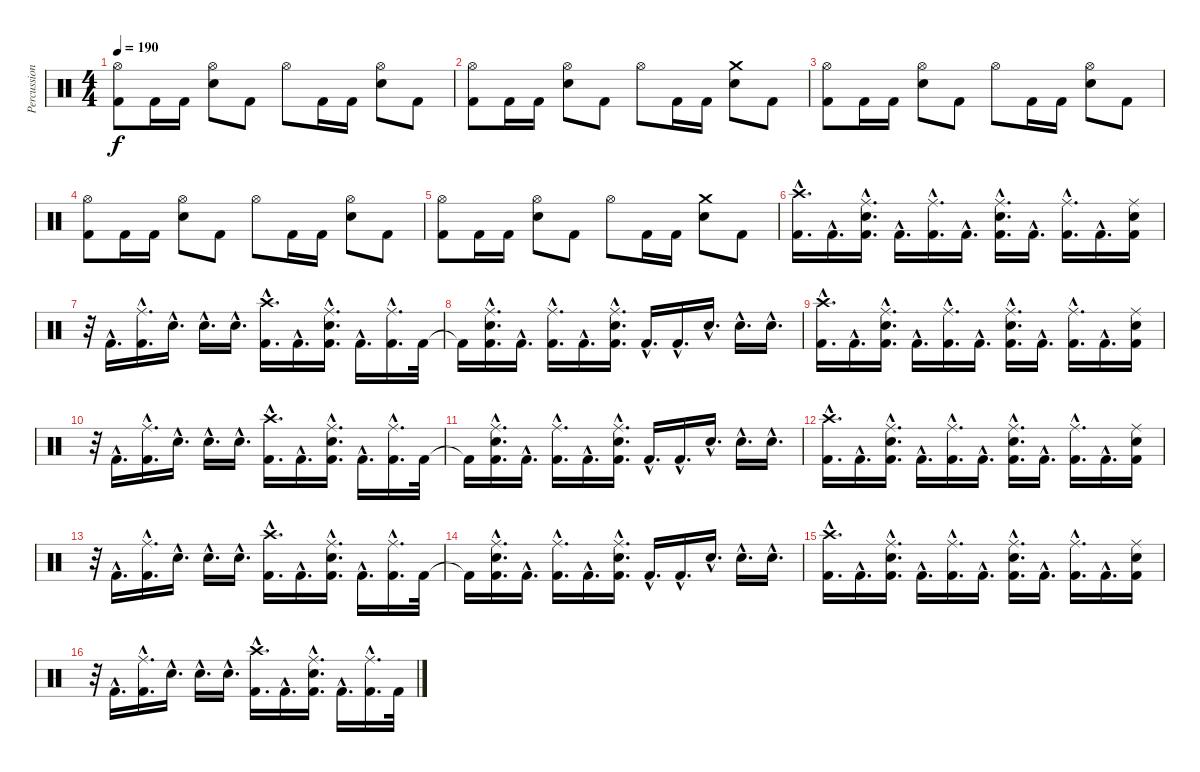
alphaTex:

\track ("Percussion" "Percussion") {instrument percussion}
\staff {score}
\articulation defaults
\ts (4 4)
\tempo 190
\clef neutral
\ks c
("Hi-Hat (open)" "Kick (hit) 2").8{dy f} "Kick (hit) 2".16 "Kick (hit) 2".16 ("Hi-Hat (open)" "Snare (hit) 2").8 "Kick (hit) 2".8 "Hi-Hat (open)".8 "Kick (hit) 2".16 "Kick (hit) 2".16 ("Hi-Hat (open)" "Snare (hit) 2").8 "Kick (hit) 2".8 |
("Hi-Hat (open)" "Kick (hit) 2").8 "Kick (hit) 2".16 "Kick (hit) 2".16 ("Hi-Hat (open)" "Snare (hit) 2").8 "Kick (hit) 2".8 "Hi-Hat (open)".8 "Kick (hit) 2".16 "Kick (hit) 2".16 ("Crash medium (hit)" "Snare (hit) 2").8 "Kick (hit) 2".8 |
("Hi-Hat (open)" "Kick (hit) 2").8 "Kick (hit) 2".16 "Kick (hit) 2".16 ("Hi-Hat (open)" "Snare (hit) 2").8 "Kick (hit) 2".8 "Hi-Hat (open)".8 "Kick (hit) 2".16 "Kick (hit) 2".16 ("Hi-Hat (open)" "Snare (hit) 2").8 "Kick (hit) 2".8 |
("Hi-Hat (open)" "Kick (hit) 2").8 "Kick (hit) 2".16 "Kick (hit) 2".16 ("Hi-Hat (open)" "Snare (hit) 2").8 "Kick (hit) 2".8 "Hi-Hat (open)".8 "Kick (hit) 2".16 "Kick (hit) 2".16 ("Hi-Hat (open)" "Snare (hit) 2").8 "Kick (hit) 2".8 |
("Hi-Hat (open)" "Kick (hit) 2").8 "Kick (hit) 2".16 "Kick (hit) 2".16 ("Hi-Hat (open)" "Snare (hit) 2").8 "Kick (hit) 2".8 "Hi-Hat (open)".8 "Kick (hit) 2".16 "Kick (hit) 2".16 ("Crash medium (hit)" "Snare (hit) 2").8 "Kick (hit) 2".8 |
("Crash high (hit)"{hac} "Kick (hit) 2"{hac}).16{d} "Kick (hit) 2"{hac}.16{d} ("Ride (middle)"{hac} "Snare (hit) 2"{hac} "Kick (hit) 2"{hac}).16{d} "Kick (hit) 2"{hac}.16{d} ("Ride (middle)"{hac} "Kick (hit) 2"{hac}).16{d} "Kick (hit) 2"{hac}.16{d} ("Ride (middle)"{hac} "Snare (hit) 2"{hac} "Kick (hit) 2"{hac}).16{d} "Kick (hit) 2"{hac}.16{d} ("Ride (middle)"{hac} "Kick (hit) 2"{hac}).16{d} "Kick (hit) 2"{hac}.16{d} ("Ride (middle)" "Snare (hit) 2" "Kick (hit) 2").16 |
r.32 "Kick (hit) 2"{hac}.16{d} ("Ride (middle)"{hac} "Kick (hit) 2"{hac}).16{d} "Snare (hit) 2"{hac}.16{d} "Snare (hit) 2"{hac}.16{d} "Snare (hit) 2"{hac}.16{d} ("Crash high (hit)"{hac} "Kick (hit) 2"{hac}).16{d} "Kick (hit) 2"{hac}.16{d} ("Ride (middle)"{hac} "Snare (hit) 2"{hac} "Kick (hit) 2"{hac}).16{d} "Kick (hit) 2"{hac}.16{d} ("Ride (middle)"{hac} "Kick (hit) 2"{hac}).16{d} "Kick (hit) 2".32 |
"Kick (hit) 2"{t}.16 ("Ride (middle)"{hac} "Snare (hit) 2"{hac} "Kick (hit) 2"{hac}).16{d} "Kick (hit) 2"{hac}.16{d} ("Ride (middle)"{hac} "Kick (hit) 2"{hac}).16{d} "Kick (hit) 2"{hac}.16{d} ("Ride (middle)"{hac} "Snare (hit) 2"{hac} "Kick (hit) 2"{hac}).16{d} "Kick (hit) 2"{hac}.16{d} "Kick (hit) 2"{hac}.16{d} "Snare (hit) 2"{hac}.16{d} "Snare (hit) 2"{hac}.16{d} "Snare (hit) 2"{hac}.16{d} |
("Crash high (hit)"{hac} "Kick (hit) 2"{hac}).16{d} "Kick (hit) 2"{hac}.16{d} ("Ride (middle)"{hac} "Snare (hit) 2"{hac} "Kick (hit) 2"{hac}).16{d} "Kick (hit) 2"{hac}.16{d} ("Ride (middle)"{hac} "Kick (hit) 2"{hac}).16{d} "Kick (hit) 2"{hac}.16{d} ("Ride (middle)"{hac} "Snare (hit) 2"{hac} "Kick (hit) 2"{hac}).16{d} "Kick (hit) 2"{hac}.16{d} ("Ride (middle)"{hac} "Kick (hit) 2"{hac}).16{d} "Kick (hit) 2"{hac}.16{d} ("Ride (middle)" "Snare (hit) 2" "Kick (hit) 2").16 |
r.32 "Kick (hit) 2"{hac}.16{d} ("Ride (middle)"{hac} "Kick (hit) 2"{hac}).16{d} "Snare (hit) 2"{hac}.16{d} "Snare (hit) 2"{hac}.16{d} "Snare (hit) 2"{hac}.16{d} ("Crash high (hit)"{hac} "Kick (hit) 2"{hac}).16{d} "Kick (hit) 2"{hac}.16{d} ("Ride (middle)"{hac} "Snare (hit) 2"{hac} "Kick (hit) 2"{hac}).16{d} "Kick (hit) 2"{hac}.16{d} ("Ride (middle)"{hac} "Kick (hit) 2"{hac}).16{d} "Kick (hit) 2".32 |
"Kick (hit) 2"{t}.16 ("Ride (middle)"{hac} "Snare (hit) 2"{hac} "Kick (hit) 2"{hac}).16{d} "Kick (hit) 2"{hac}.16{d} ("Ride (middle)"{hac} "Kick (hit) 2"{hac}).16{d} "Kick (hit) 2"{hac}.16{d} ("Ride (middle)"{hac} "Snare (hit) 2"{hac} "Kick (hit) 2"{hac}).16{d} "Kick (hit) 2"{hac}.16{d} "Kick (hit) 2"{hac}.16{d} "Snare (hit) 2"{hac}.16{d} "Snare (hit) 2"{hac}.16{d} "Snare (hit) 2"{hac}.16{d} |
("Crash high (hit)"{hac} "Kick (hit) 2"{hac}).16{d} "Kick (hit) 2"{hac}.16{d} ("Ride (middle)"{hac} "Snare (hit) 2"{hac} "Kick (hit) 2"{hac}).16{d} "Kick (hit) 2"{hac}.16{d} ("Ride (middle)"{hac} "Kick (hit) 2"{hac}).16{d} "Kick (hit) 2"{hac}.16{d} ("Ride (middle)"{hac} "Snare (hit) 2"{hac} "Kick (hit) 2"{hac}).16{d} "Kick (hit) 2"{hac}.16{d} ("Ride (middle)"{hac} "Kick (hit) 2"{hac}).16{d} "Kick (hit) 2"{hac}.16{d} ("Ride (middle)" "Snare (hit) 2" "Kick (hit) 2").16 |
r.32 "Kick (hit) 2"{hac}.16{d} ("Ride (middle)"{hac} "Kick (hit) 2"{hac}).16{d} "Snare (hit) 2"{hac}.16{d} "Snare (hit) 2"{hac}.16{d} "Snare (hit) 2"{hac}.16{d} ("Crash high (hit)"{hac} "Kick (hit) 2"{hac}).16{d} "Kick (hit) 2"{hac}.16{d} ("Ride (middle)"{hac} "Snare (hit) 2"{hac} "Kick (hit) 2"{hac}).16{d} "Kick (hit) 2"{hac}.16{d} ("Ride (middle)"{hac} "Kick (hit) 2"{hac}).16{d} "Kick (hit) 2".32 |
"Kick (hit) 2"{t}.16 ("Ride (middle)"{hac} "Snare (hit) 2"{hac} "Kick (hit) 2"{hac}).16{d} "Kick (hit) 2"{hac}.16{d} ("Ride (middle)"{hac} "Kick (hit) 2"{hac}).16{d} "Kick (hit) 2"{hac}.16{d} ("Ride (middle)"{hac} "Snare (hit) 2"{hac} "Kick (hit) 2"{hac}).16{d} "Kick (hit) 2"{hac}.16{d} "Kick (hit) 2"{hac}.16{d} "Snare (hit) 2"{hac}.16{d} "Snare (hit) 2"{hac}.16{d} "Snare (hit) 2"{hac}.16{d} |
("Crash high (hit)"{hac} "Kick (hit) 2"{hac}).16{d} "Kick (hit) 2"{hac}.16{d} ("Ride (middle)"{hac} "Snare (hit) 2"{hac} "Kick (hit) 2"{hac}).16{d} "Kick (hit) 2"{hac}.16{d} ("Ride (middle)"{hac} "Kick (hit) 2"{hac}).16{d} "Kick (hit) 2"{hac}.16{d} ("Ride (middle)"{hac} "Snare (hit) 2"{hac} "Kick (hit) 2"{hac}).16{d} "Kick (hit) 2"{hac}.16{d} ("Ride (middle)"{hac} "Kick (hit) 2"{hac}).16{d} "Kick (hit) 2"{hac}.16{d} ("Ride (middle)" "Snare (hit) 2" "Kick (hit) 2").16 |
r.32 "Kick (hit) 2"{hac}.16{d} ("Ride (middle)"{hac} "Kick (hit) 2"{hac}).16{d} "Snare (hit) 2"{hac}.16{d} "Snare (hit) 2"{hac}.16{d} "Snare (hit) 2"{hac}.16{d} ("Crash high (hit)"{hac} "Kick (hit) 2"{hac}).16{d} "Kick (hit) 2"{hac}.16{d} ("Ride (middle)"{hac} "Snare (hit) 2"{hac} "Kick (hit) 2"{hac}).16{d} "Kick (hit) 2"{hac}.16{d} ("Ride (middle)"{hac} "Kick (hit) 2"{hac}).16{d} "Kick (hit) 2".32
